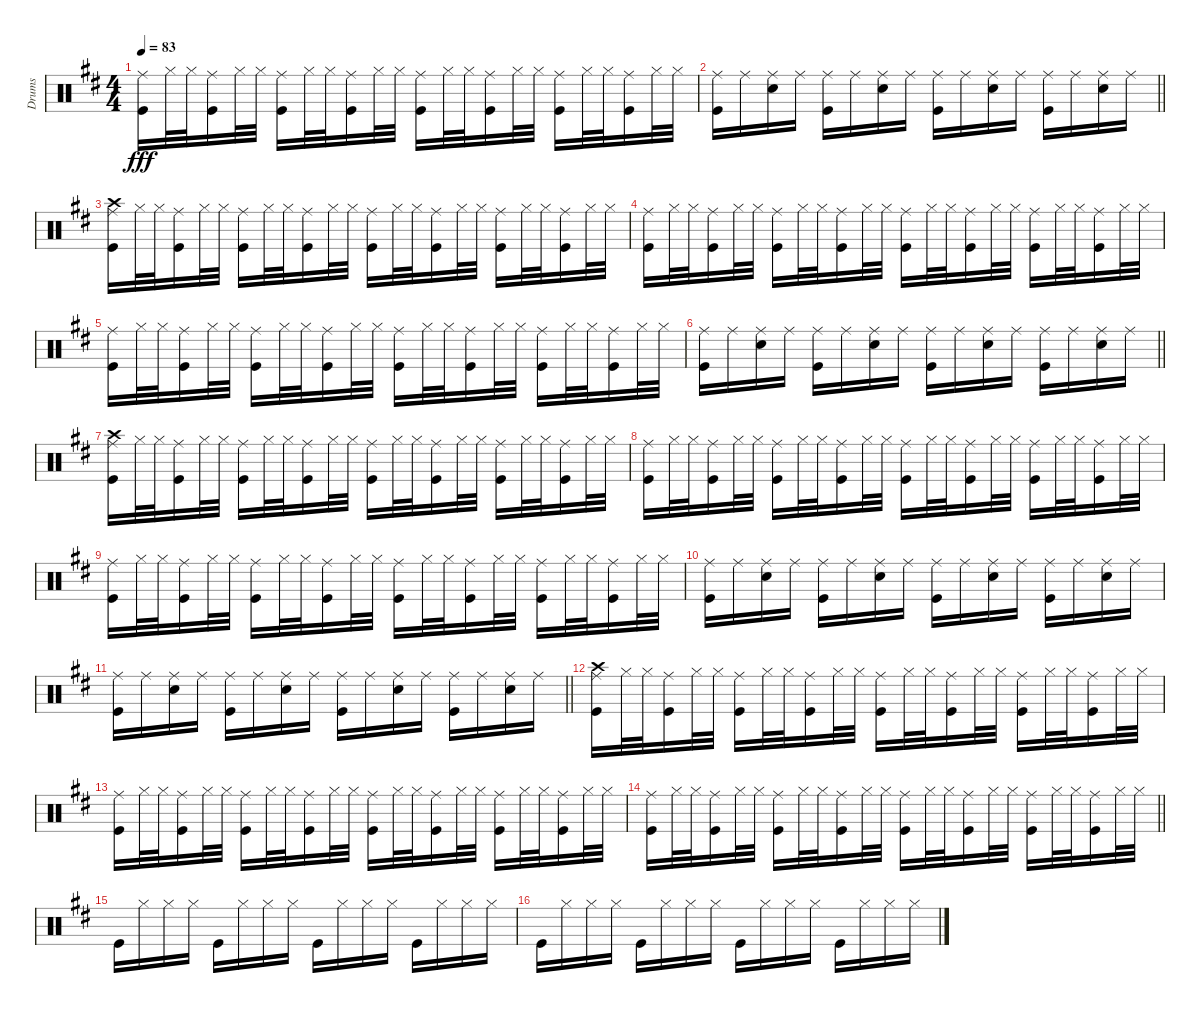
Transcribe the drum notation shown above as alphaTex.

\track ("Drums" "Drums") {instrument percussion}
\staff {score}
\articulation defaults
\ts (4 4)
\tempo 83
\clef neutral
\ks d
("Ride (middle)" "Kick (hit)").16{dy fff} "Hi-Hat (closed)".32 "Hi-Hat (closed)".32 ("Ride (middle)" "Kick (hit)").16 "Hi-Hat (closed)".32 "Hi-Hat (closed)".32 ("Ride (middle)" "Kick (hit)").16 "Hi-Hat (closed)".32 "Hi-Hat (closed)".32 ("Ride (middle)" "Kick (hit)").16 "Hi-Hat (closed)".32 "Hi-Hat (closed)".32 ("Ride (middle)" "Kick (hit)").16 "Hi-Hat (closed)".32 "Hi-Hat (closed)".32 ("Ride (middle)" "Kick (hit)").16 "Hi-Hat (closed)".32 "Hi-Hat (closed)".32 ("Ride (middle)" "Kick (hit)").16 "Hi-Hat (closed)".32 "Hi-Hat (closed)".32 ("Ride (middle)" "Kick (hit)").16 "Hi-Hat (closed)".32 "Hi-Hat (closed)".32 |
\barLineRight lightlight
("Ride (middle)" "Kick (hit)").16 "Ride (middle)".16 ("Ride (middle)" "Electric Snare (hit)").16 "Ride (middle)".16 ("Ride (middle)" "Kick (hit)").16 "Ride (middle)".16 ("Ride (middle)" "Electric Snare (hit)").16 "Ride (middle)".16 ("Ride (middle)" "Kick (hit)").16 "Ride (middle)".16 ("Ride (middle)" "Electric Snare (hit)").16 "Ride (middle)".16 ("Ride (middle)" "Kick (hit)").16 "Ride (middle)".16 ("Ride (middle)" "Electric Snare (hit)").16 "Ride (middle)".16 |
("Crash high (hit)" "Ride (middle)" "Kick (hit)").16 "Hi-Hat (closed)".32 "Hi-Hat (closed)".32 ("Ride (middle)" "Kick (hit)").16 "Hi-Hat (closed)".32 "Hi-Hat (closed)".32 ("Ride (middle)" "Kick (hit)").16 "Hi-Hat (closed)".32 "Hi-Hat (closed)".32 ("Ride (middle)" "Kick (hit)").16 "Hi-Hat (closed)".32 "Hi-Hat (closed)".32 ("Ride (middle)" "Kick (hit)").16 "Hi-Hat (closed)".32 "Hi-Hat (closed)".32 ("Ride (middle)" "Kick (hit)").16 "Hi-Hat (closed)".32 "Hi-Hat (closed)".32 ("Ride (middle)" "Kick (hit)").16 "Hi-Hat (closed)".32 "Hi-Hat (closed)".32 ("Ride (middle)" "Kick (hit)").16 "Hi-Hat (closed)".32 "Hi-Hat (closed)".32 |
("Ride (middle)" "Kick (hit)").16 "Hi-Hat (closed)".32 "Hi-Hat (closed)".32 ("Ride (middle)" "Kick (hit)").16 "Hi-Hat (closed)".32 "Hi-Hat (closed)".32 ("Ride (middle)" "Kick (hit)").16 "Hi-Hat (closed)".32 "Hi-Hat (closed)".32 ("Ride (middle)" "Kick (hit)").16 "Hi-Hat (closed)".32 "Hi-Hat (closed)".32 ("Ride (middle)" "Kick (hit)").16 "Hi-Hat (closed)".32 "Hi-Hat (closed)".32 ("Ride (middle)" "Kick (hit)").16 "Hi-Hat (closed)".32 "Hi-Hat (closed)".32 ("Ride (middle)" "Kick (hit)").16 "Hi-Hat (closed)".32 "Hi-Hat (closed)".32 ("Ride (middle)" "Kick (hit)").16 "Hi-Hat (closed)".32 "Hi-Hat (closed)".32 |
("Ride (middle)" "Kick (hit)").16 "Hi-Hat (closed)".32 "Hi-Hat (closed)".32 ("Ride (middle)" "Kick (hit)").16 "Hi-Hat (closed)".32 "Hi-Hat (closed)".32 ("Ride (middle)" "Kick (hit)").16 "Hi-Hat (closed)".32 "Hi-Hat (closed)".32 ("Ride (middle)" "Kick (hit)").16 "Hi-Hat (closed)".32 "Hi-Hat (closed)".32 ("Ride (middle)" "Kick (hit)").16 "Hi-Hat (closed)".32 "Hi-Hat (closed)".32 ("Ride (middle)" "Kick (hit)").16 "Hi-Hat (closed)".32 "Hi-Hat (closed)".32 ("Ride (middle)" "Kick (hit)").16 "Hi-Hat (closed)".32 "Hi-Hat (closed)".32 ("Ride (middle)" "Kick (hit)").16 "Hi-Hat (closed)".32 "Hi-Hat (closed)".32 |
\barLineRight lightlight
("Ride (middle)" "Kick (hit)").16 "Ride (middle)".16 ("Ride (middle)" "Electric Snare (hit)").16 "Ride (middle)".16 ("Ride (middle)" "Kick (hit)").16 "Ride (middle)".16 ("Ride (middle)" "Electric Snare (hit)").16 "Ride (middle)".16 ("Ride (middle)" "Kick (hit)").16 "Ride (middle)".16 ("Ride (middle)" "Electric Snare (hit)").16 "Ride (middle)".16 ("Ride (middle)" "Kick (hit)").16 "Ride (middle)".16 ("Ride (middle)" "Electric Snare (hit)").16 "Ride (middle)".16 |
("Crash high (hit)" "Ride (middle)" "Kick (hit)").16 "Hi-Hat (closed)".32 "Hi-Hat (closed)".32 ("Ride (middle)" "Kick (hit)").16 "Hi-Hat (closed)".32 "Hi-Hat (closed)".32 ("Ride (middle)" "Kick (hit)").16 "Hi-Hat (closed)".32 "Hi-Hat (closed)".32 ("Ride (middle)" "Kick (hit)").16 "Hi-Hat (closed)".32 "Hi-Hat (closed)".32 ("Ride (middle)" "Kick (hit)").16 "Hi-Hat (closed)".32 "Hi-Hat (closed)".32 ("Ride (middle)" "Kick (hit)").16 "Hi-Hat (closed)".32 "Hi-Hat (closed)".32 ("Ride (middle)" "Kick (hit)").16 "Hi-Hat (closed)".32 "Hi-Hat (closed)".32 ("Ride (middle)" "Kick (hit)").16 "Hi-Hat (closed)".32 "Hi-Hat (closed)".32 |
("Ride (middle)" "Kick (hit)").16 "Hi-Hat (closed)".32 "Hi-Hat (closed)".32 ("Ride (middle)" "Kick (hit)").16 "Hi-Hat (closed)".32 "Hi-Hat (closed)".32 ("Ride (middle)" "Kick (hit)").16 "Hi-Hat (closed)".32 "Hi-Hat (closed)".32 ("Ride (middle)" "Kick (hit)").16 "Hi-Hat (closed)".32 "Hi-Hat (closed)".32 ("Ride (middle)" "Kick (hit)").16 "Hi-Hat (closed)".32 "Hi-Hat (closed)".32 ("Ride (middle)" "Kick (hit)").16 "Hi-Hat (closed)".32 "Hi-Hat (closed)".32 ("Ride (middle)" "Kick (hit)").16 "Hi-Hat (closed)".32 "Hi-Hat (closed)".32 ("Ride (middle)" "Kick (hit)").16 "Hi-Hat (closed)".32 "Hi-Hat (closed)".32 |
("Ride (middle)" "Kick (hit)").16 "Hi-Hat (closed)".32 "Hi-Hat (closed)".32 ("Ride (middle)" "Kick (hit)").16 "Hi-Hat (closed)".32 "Hi-Hat (closed)".32 ("Ride (middle)" "Kick (hit)").16 "Hi-Hat (closed)".32 "Hi-Hat (closed)".32 ("Ride (middle)" "Kick (hit)").16 "Hi-Hat (closed)".32 "Hi-Hat (closed)".32 ("Ride (middle)" "Kick (hit)").16 "Hi-Hat (closed)".32 "Hi-Hat (closed)".32 ("Ride (middle)" "Kick (hit)").16 "Hi-Hat (closed)".32 "Hi-Hat (closed)".32 ("Ride (middle)" "Kick (hit)").16 "Hi-Hat (closed)".32 "Hi-Hat (closed)".32 ("Ride (middle)" "Kick (hit)").16 "Hi-Hat (closed)".32 "Hi-Hat (closed)".32 |
("Ride (middle)" "Kick (hit)").16 "Ride (middle)".16 ("Ride (middle)" "Electric Snare (hit)").16 "Ride (middle)".16 ("Ride (middle)" "Kick (hit)").16 "Ride (middle)".16 ("Ride (middle)" "Electric Snare (hit)").16 "Ride (middle)".16 ("Ride (middle)" "Kick (hit)").16 "Ride (middle)".16 ("Ride (middle)" "Electric Snare (hit)").16 "Ride (middle)".16 ("Ride (middle)" "Kick (hit)").16 "Ride (middle)".16 ("Ride (middle)" "Electric Snare (hit)").16 "Ride (middle)".16 |
\barLineRight lightlight
("Ride (middle)" "Kick (hit)").16 "Ride (middle)".16 ("Ride (middle)" "Electric Snare (hit)").16 "Ride (middle)".16 ("Ride (middle)" "Kick (hit)").16 "Ride (middle)".16 ("Ride (middle)" "Electric Snare (hit)").16 "Ride (middle)".16 ("Ride (middle)" "Kick (hit)").16 "Ride (middle)".16 ("Ride (middle)" "Electric Snare (hit)").16 "Ride (middle)".16 ("Ride (middle)" "Kick (hit)").16 "Ride (middle)".16 ("Ride (middle)" "Electric Snare (hit)").16 "Ride (middle)".16 |
("Crash high (hit)" "Ride (middle)" "Kick (hit)").16 "Hi-Hat (closed)".32 "Hi-Hat (closed)".32 ("Ride (middle)" "Kick (hit)").16 "Hi-Hat (closed)".32 "Hi-Hat (closed)".32 ("Ride (middle)" "Kick (hit)").16 "Hi-Hat (closed)".32 "Hi-Hat (closed)".32 ("Ride (middle)" "Kick (hit)").16 "Hi-Hat (closed)".32 "Hi-Hat (closed)".32 ("Ride (middle)" "Kick (hit)").16 "Hi-Hat (closed)".32 "Hi-Hat (closed)".32 ("Ride (middle)" "Kick (hit)").16 "Hi-Hat (closed)".32 "Hi-Hat (closed)".32 ("Ride (middle)" "Kick (hit)").16 "Hi-Hat (closed)".32 "Hi-Hat (closed)".32 ("Ride (middle)" "Kick (hit)").16 "Hi-Hat (closed)".32 "Hi-Hat (closed)".32 |
("Ride (middle)" "Kick (hit)").16 "Hi-Hat (closed)".32 "Hi-Hat (closed)".32 ("Ride (middle)" "Kick (hit)").16 "Hi-Hat (closed)".32 "Hi-Hat (closed)".32 ("Ride (middle)" "Kick (hit)").16 "Hi-Hat (closed)".32 "Hi-Hat (closed)".32 ("Ride (middle)" "Kick (hit)").16 "Hi-Hat (closed)".32 "Hi-Hat (closed)".32 ("Ride (middle)" "Kick (hit)").16 "Hi-Hat (closed)".32 "Hi-Hat (closed)".32 ("Ride (middle)" "Kick (hit)").16 "Hi-Hat (closed)".32 "Hi-Hat (closed)".32 ("Ride (middle)" "Kick (hit)").16 "Hi-Hat (closed)".32 "Hi-Hat (closed)".32 ("Ride (middle)" "Kick (hit)").16 "Hi-Hat (closed)".32 "Hi-Hat (closed)".32 |
\barLineRight lightlight
("Ride (middle)" "Kick (hit)").16 "Hi-Hat (closed)".32 "Hi-Hat (closed)".32 ("Ride (middle)" "Kick (hit)").16 "Hi-Hat (closed)".32 "Hi-Hat (closed)".32 ("Ride (middle)" "Kick (hit)").16 "Hi-Hat (closed)".32 "Hi-Hat (closed)".32 ("Ride (middle)" "Kick (hit)").16 "Hi-Hat (closed)".32 "Hi-Hat (closed)".32 ("Ride (middle)" "Kick (hit)").16 "Hi-Hat (closed)".32 "Hi-Hat (closed)".32 ("Ride (middle)" "Kick (hit)").16 "Hi-Hat (closed)".32 "Hi-Hat (closed)".32 ("Ride (middle)" "Kick (hit)").16 "Hi-Hat (closed)".32 "Hi-Hat (closed)".32 ("Ride (middle)" "Kick (hit)").16 "Hi-Hat (closed)".32 "Hi-Hat (closed)".32 |
"Kick (hit)".16 "Hi-Hat (closed)".16 "Hi-Hat (closed)".16 "Hi-Hat (closed)".16 "Kick (hit)".16 "Hi-Hat (closed)".16 "Hi-Hat (closed)".16 "Hi-Hat (closed)".16 "Kick (hit)".16 "Hi-Hat (closed)".16 "Hi-Hat (closed)".16 "Hi-Hat (closed)".16 "Kick (hit)".16 "Hi-Hat (closed)".16 "Hi-Hat (closed)".16 "Hi-Hat (closed)".16 |
"Kick (hit)".16 "Hi-Hat (closed)".16 "Hi-Hat (closed)".16 "Hi-Hat (closed)".16 "Kick (hit)".16 "Hi-Hat (closed)".16 "Hi-Hat (closed)".16 "Hi-Hat (closed)".16 "Kick (hit)".16 "Hi-Hat (closed)".16 "Hi-Hat (closed)".16 "Hi-Hat (closed)".16 "Kick (hit)".16 "Hi-Hat (closed)".16 "Hi-Hat (closed)".16 "Hi-Hat (closed)".16
